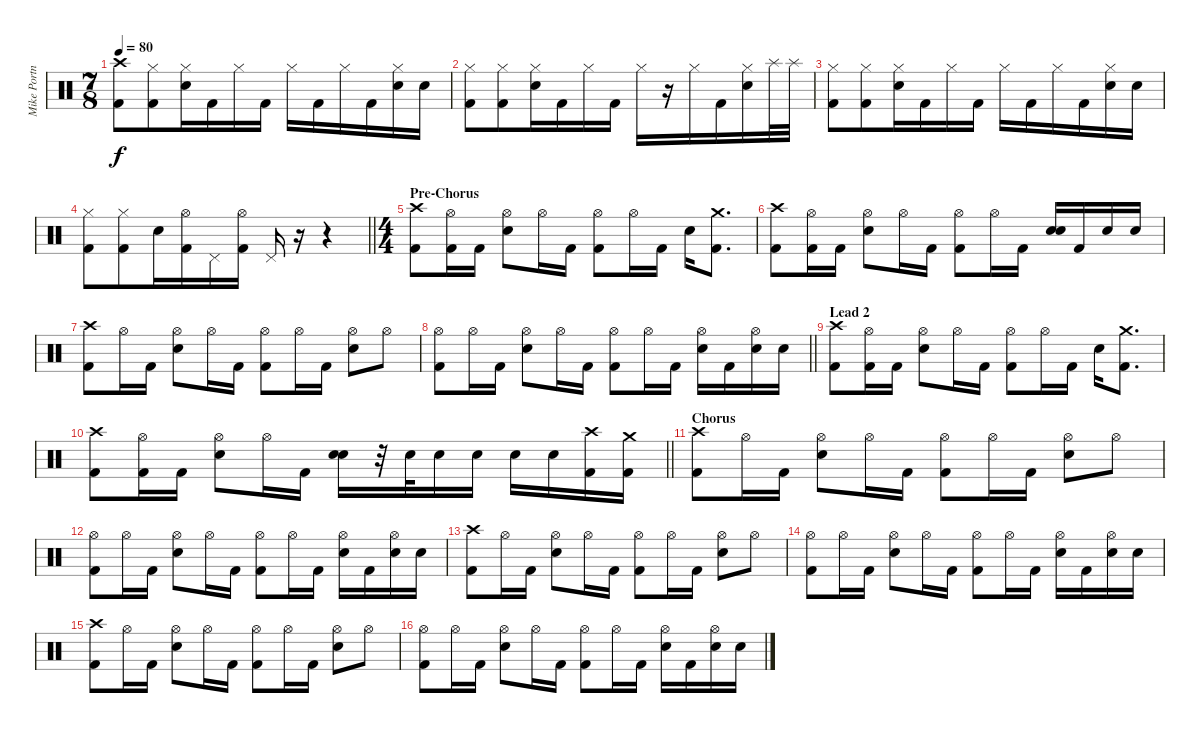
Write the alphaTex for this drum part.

\track ("Mike Portnoy" "Mike Portn") {instrument percussion}
\staff {score}
\articulation defaults
\ts (7 8)
\tempo 80
\clef neutral
\ks c
("Kick (hit) 2" "Crash high (hit)").8{dy f} ("Kick (hit) 2" "Hi-Hat (closed)").8 ("Electric Snare (hit)" "Hi-Hat (closed)").16 "Kick (hit) 2".16 "Hi-Hat (closed)".16 "Kick (hit) 2".16 "Hi-Hat (closed)".16 "Kick (hit) 2".16 "Hi-Hat (closed)".16 "Kick (hit) 2".16 ("Electric Snare (hit)" "Hi-Hat (closed)").16 "Electric Snare (hit)".16 |
("Kick (hit) 2" "Hi-Hat (closed)").8 ("Kick (hit) 2" "Hi-Hat (closed)").8 ("Electric Snare (hit)" "Hi-Hat (closed)").16 "Kick (hit) 2".16 "Hi-Hat (closed)".16 "Kick (hit) 2".16 "Hi-Hat (closed)".16 r.16 "Hi-Hat (closed)".16 "Kick (hit) 2".16 ("Electric Snare (hit)" "Hi-Hat (closed)").16 "Splash (hit)".32 "Splash (hit)".32 |
("Kick (hit) 2" "Hi-Hat (closed)").8 ("Kick (hit) 2" "Hi-Hat (closed)").8 ("Electric Snare (hit)" "Hi-Hat (closed)").16 "Kick (hit) 2".16 "Hi-Hat (closed)".16 "Kick (hit) 2".16 "Hi-Hat (closed)".16 "Kick (hit) 2".16 "Hi-Hat (closed)".16 "Kick (hit) 2".16 ("Electric Snare (hit)" "Hi-Hat (closed)").16 "Electric Snare (hit)".16 |
\barLineRight lightlight
("Kick (hit) 2" "Hi-Hat (closed)").8 ("Kick (hit) 2" "Hi-Hat (closed)").8 "Electric Snare (hit)".16 ("Kick (hit) 2" "Hi-Hat (open)").16 "Pedal Hi-Hat (hit)".16 ("Kick (hit) 2" "Hi-Hat (open)").16 "Pedal Hi-Hat (hit)".16 r.16 r.4 |
\ts (4 4)
\section ("" "Pre-Chorus")
("Kick (hit) 2" "Crash high (hit)").8 ("Kick (hit) 2" "Hi-Hat (open)").16 "Kick (hit) 2".16 ("Electric Snare (hit)" "Hi-Hat (open)").8 "Hi-Hat (open)".16 "Kick (hit) 2".16 ("Kick (hit) 2" "Hi-Hat (open)").8 "Hi-Hat (open)".16 "Kick (hit) 2".16 "Electric Snare (hit)".16 ("Kick (hit) 2" "Crash medium (hit)").8{d} |
("Kick (hit) 2" "Crash high (hit)").8 ("Kick (hit) 2" "Hi-Hat (open)").16 "Kick (hit) 2".16 ("Electric Snare (hit)" "Hi-Hat (open)").8 "Hi-Hat (open)".16 "Kick (hit) 2".16 ("Kick (hit) 2" "Hi-Hat (open)").8 "Hi-Hat (open)".16 "Kick (hit) 2".16 ("Electric Snare (hit)" "Electric Snare (hit)").16{bd 240} "Kick (hit) 2".16 "Electric Snare (hit)".16 "Electric Snare (hit)".16 |
("Kick (hit) 2" "Crash high (hit)").8 "Hi-Hat (open)".16 "Kick (hit) 2".16 ("Electric Snare (hit)" "Hi-Hat (open)").8 "Hi-Hat (open)".16 "Kick (hit) 2".16 ("Kick (hit) 2" "Hi-Hat (open)").8 "Hi-Hat (open)".16 "Kick (hit) 2".16 ("Electric Snare (hit)" "Hi-Hat (open)").8 "Hi-Hat (open)".8 |
\barLineRight lightlight
("Kick (hit) 2" "Hi-Hat (open)").8 "Hi-Hat (open)".16 "Kick (hit) 2".16 ("Electric Snare (hit)" "Hi-Hat (open)").8 "Hi-Hat (open)".16 "Kick (hit) 2".16 ("Kick (hit) 2" "Hi-Hat (open)").8 "Hi-Hat (open)".16 "Kick (hit) 2".16 ("Electric Snare (hit)" "Hi-Hat (open)").16 "Kick (hit) 2".16 ("Electric Snare (hit)" "Hi-Hat (open)").16 "Electric Snare (hit)".16 |
\section ("" "Lead 2")
("Kick (hit) 2" "Crash high (hit)").8 ("Kick (hit) 2" "Hi-Hat (open)").16 "Kick (hit) 2".16 ("Electric Snare (hit)" "Hi-Hat (open)").8 "Hi-Hat (open)".16 "Kick (hit) 2".16 ("Kick (hit) 2" "Hi-Hat (open)").8 "Hi-Hat (open)".16 "Kick (hit) 2".16 "Electric Snare (hit)".16 ("Kick (hit) 2" "Crash medium (hit)").8{d} |
\barLineRight lightlight
("Kick (hit) 2" "Crash high (hit)").8 ("Kick (hit) 2" "Hi-Hat (open)").16 "Kick (hit) 2".16 ("Electric Snare (hit)" "Hi-Hat (open)").8 "Hi-Hat (open)".16 "Kick (hit) 2".16 ("Electric Snare (hit)" "Electric Snare (hit)").16{bu 240} r.32 "Electric Snare (hit)".32 "Electric Snare (hit)".16 "Electric Snare (hit)".16 "Electric Snare (hit)".16 "Electric Snare (hit)".16 ("Kick (hit) 2" "Crash high (hit)").16 ("Kick (hit) 2" "Crash medium (hit)").16 |
\section ("" "Chorus")
("Kick (hit) 2" "Crash high (hit)").8 "Hi-Hat (open)".16 "Kick (hit) 2".16 ("Electric Snare (hit)" "Hi-Hat (open)").8 "Hi-Hat (open)".16 "Kick (hit) 2".16 ("Kick (hit) 2" "Hi-Hat (open)").8 "Hi-Hat (open)".16 "Kick (hit) 2".16 ("Electric Snare (hit)" "Hi-Hat (open)").8 "Hi-Hat (open)".8 |
("Kick (hit) 2" "Hi-Hat (open)").8 "Hi-Hat (open)".16 "Kick (hit) 2".16 ("Electric Snare (hit)" "Hi-Hat (open)").8 "Hi-Hat (open)".16 "Kick (hit) 2".16 ("Kick (hit) 2" "Hi-Hat (open)").8 "Hi-Hat (open)".16 "Kick (hit) 2".16 ("Electric Snare (hit)" "Hi-Hat (open)").16 "Kick (hit) 2".16 ("Electric Snare (hit)" "Hi-Hat (open)").16 "Electric Snare (hit)".16 |
("Kick (hit) 2" "Crash high (hit)").8 "Hi-Hat (open)".16 "Kick (hit) 2".16 ("Electric Snare (hit)" "Hi-Hat (open)").8 "Hi-Hat (open)".16 "Kick (hit) 2".16 ("Kick (hit) 2" "Hi-Hat (open)").8 "Hi-Hat (open)".16 "Kick (hit) 2".16 ("Electric Snare (hit)" "Hi-Hat (open)").8 "Hi-Hat (open)".8 |
("Kick (hit) 2" "Hi-Hat (open)").8 "Hi-Hat (open)".16 "Kick (hit) 2".16 ("Electric Snare (hit)" "Hi-Hat (open)").8 "Hi-Hat (open)".16 "Kick (hit) 2".16 ("Kick (hit) 2" "Hi-Hat (open)").8 "Hi-Hat (open)".16 "Kick (hit) 2".16 ("Electric Snare (hit)" "Hi-Hat (open)").16 "Kick (hit) 2".16 ("Electric Snare (hit)" "Hi-Hat (open)").16 "Electric Snare (hit)".16 |
("Kick (hit) 2" "Crash high (hit)").8 "Hi-Hat (open)".16 "Kick (hit) 2".16 ("Electric Snare (hit)" "Hi-Hat (open)").8 "Hi-Hat (open)".16 "Kick (hit) 2".16 ("Kick (hit) 2" "Hi-Hat (open)").8 "Hi-Hat (open)".16 "Kick (hit) 2".16 ("Electric Snare (hit)" "Hi-Hat (open)").8 "Hi-Hat (open)".8 |
("Kick (hit) 2" "Hi-Hat (open)").8 "Hi-Hat (open)".16 "Kick (hit) 2".16 ("Electric Snare (hit)" "Hi-Hat (open)").8 "Hi-Hat (open)".16 "Kick (hit) 2".16 ("Kick (hit) 2" "Hi-Hat (open)").8 "Hi-Hat (open)".16 "Kick (hit) 2".16 ("Electric Snare (hit)" "Hi-Hat (open)").16 "Kick (hit) 2".16 ("Electric Snare (hit)" "Hi-Hat (open)").16 "Electric Snare (hit)".16
